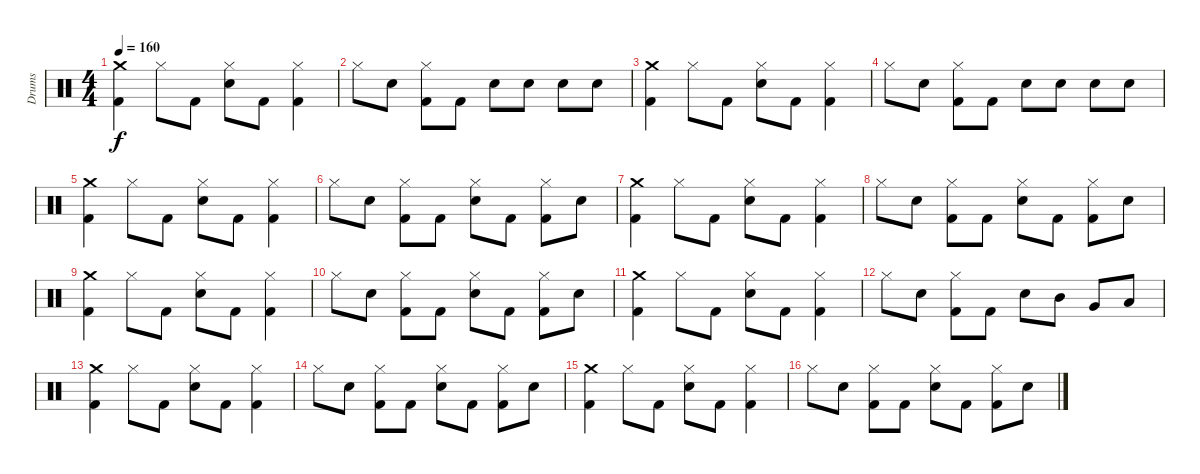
\track ("Drums" "Drums") {instrument percussion}
\staff {score}
\articulation defaults
\ts (4 4)
\tempo 160
\clef neutral
\ks c
("Crash medium (hit)" "Kick (hit) 2").4{dy f} "Hi-Hat (closed)".8 "Kick (hit) 2".8 ("Snare (hit) 2" "Hi-Hat (closed)").8 "Kick (hit) 2".8 ("Hi-Hat (closed)" "Kick (hit) 2").4 |
"Hi-Hat (closed)".8 "Snare (hit) 2".8 ("Hi-Hat (closed)" "Kick (hit) 2").8 "Kick (hit) 2".8 "Snare (hit) 2".8 "Snare (hit) 2".8 "Snare (hit) 2".8 "Snare (hit) 2".8 |
("Crash medium (hit)" "Kick (hit) 2").4 "Hi-Hat (closed)".8 "Kick (hit) 2".8 ("Snare (hit) 2" "Hi-Hat (closed)").8 "Kick (hit) 2".8 ("Hi-Hat (closed)" "Kick (hit) 2").4 |
"Hi-Hat (closed)".8 "Snare (hit) 2".8 ("Hi-Hat (closed)" "Kick (hit) 2").8 "Kick (hit) 2".8 "Snare (hit) 2".8 "Snare (hit) 2".8 "Snare (hit) 2".8 "Snare (hit) 2".8 |
("Crash medium (hit)" "Kick (hit) 2").4 "Hi-Hat (closed)".8 "Kick (hit) 2".8 ("Hi-Hat (closed)" "Snare (hit) 2").8 "Kick (hit) 2".8 ("Hi-Hat (closed)" "Kick (hit) 2").4 |
"Hi-Hat (closed)".8 "Snare (hit) 2".8 ("Hi-Hat (closed)" "Kick (hit) 2").8 "Kick (hit) 2".8 ("Hi-Hat (closed)" "Snare (hit) 2").8 "Kick (hit) 2".8 ("Hi-Hat (closed)" "Kick (hit) 2").8 "Snare (hit) 2".8 |
("Crash medium (hit)" "Kick (hit) 2").4 "Hi-Hat (closed)".8 "Kick (hit) 2".8 ("Hi-Hat (closed)" "Snare (hit) 2").8 "Kick (hit) 2".8 ("Hi-Hat (closed)" "Kick (hit) 2").4 |
"Hi-Hat (closed)".8 "Snare (hit) 2".8 ("Hi-Hat (closed)" "Kick (hit) 2").8 "Kick (hit) 2".8 ("Hi-Hat (closed)" "Snare (hit) 2").8 "Kick (hit) 2".8 ("Hi-Hat (closed)" "Kick (hit) 2").8 "Snare (hit) 2".8 |
("Crash medium (hit)" "Kick (hit) 2").4 "Hi-Hat (closed)".8 "Kick (hit) 2".8 ("Hi-Hat (closed)" "Snare (hit) 2").8 "Kick (hit) 2".8 ("Hi-Hat (closed)" "Kick (hit) 2").4 |
"Hi-Hat (closed)".8 "Snare (hit) 2".8 ("Hi-Hat (closed)" "Kick (hit) 2").8 "Kick (hit) 2".8 ("Hi-Hat (closed)" "Snare (hit) 2").8 "Kick (hit) 2".8 ("Hi-Hat (closed)" "Kick (hit) 2").8 "Snare (hit) 2".8 |
("Crash medium (hit)" "Kick (hit) 2").4 "Hi-Hat (closed)".8 "Kick (hit) 2".8 ("Hi-Hat (closed)" "Snare (hit) 2").8 "Kick (hit) 2".8 ("Hi-Hat (closed)" "Kick (hit) 2").4 |
"Hi-Hat (closed)".8 "Snare (hit) 2".8 ("Hi-Hat (closed)" "Kick (hit) 2").8 "Kick (hit) 2".8 "Snare (hit) 2".8 "Mid Tom (hit)".8 "Very Low Tom (hit)".8 "Low Tom (hit)".8 |
("Crash medium (hit)" "Kick (hit) 2").4 "Hi-Hat (closed)".8 "Kick (hit) 2".8 ("Hi-Hat (closed)" "Snare (hit) 2").8 "Kick (hit) 2".8 ("Hi-Hat (closed)" "Kick (hit) 2").4 |
"Hi-Hat (closed)".8 "Snare (hit) 2".8 ("Hi-Hat (closed)" "Kick (hit) 2").8 "Kick (hit) 2".8 ("Hi-Hat (closed)" "Snare (hit) 2").8 "Kick (hit) 2".8 ("Hi-Hat (closed)" "Kick (hit) 2").8 "Snare (hit) 2".8 |
("Crash medium (hit)" "Kick (hit) 2").4 "Hi-Hat (closed)".8 "Kick (hit) 2".8 ("Hi-Hat (closed)" "Snare (hit) 2").8 "Kick (hit) 2".8 ("Hi-Hat (closed)" "Kick (hit) 2").4 |
"Hi-Hat (closed)".8 "Snare (hit) 2".8 ("Hi-Hat (closed)" "Kick (hit) 2").8 "Kick (hit) 2".8 ("Hi-Hat (closed)" "Snare (hit) 2").8 "Kick (hit) 2".8 ("Hi-Hat (closed)" "Kick (hit) 2").8 "Snare (hit) 2".8
